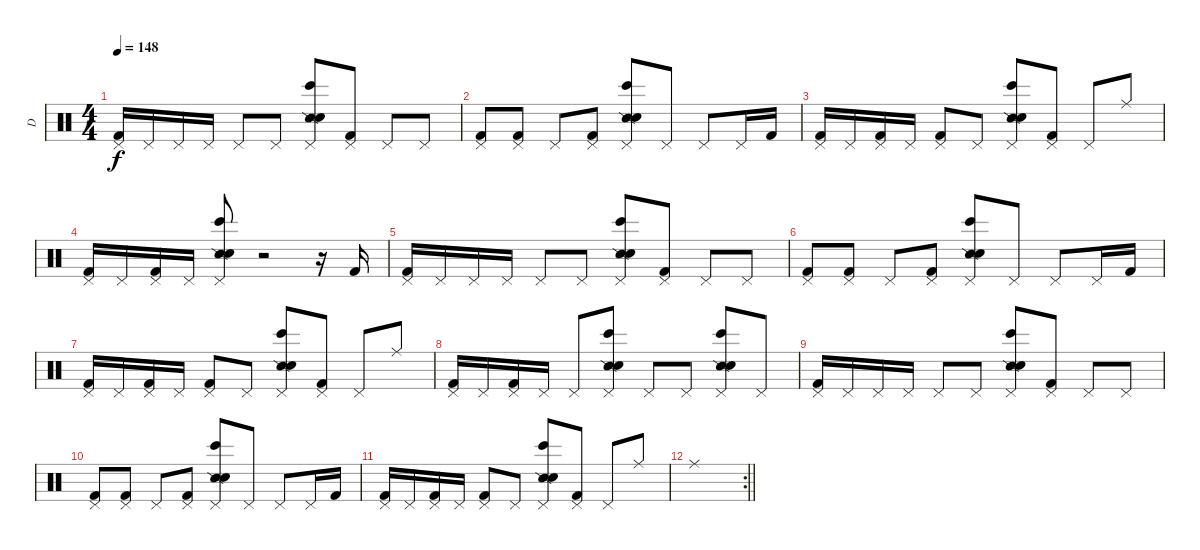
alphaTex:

\track ("D" "D") {instrument percussion}
\staff {score}
\articulation defaults
\ts (4 4)
\tempo 148
\clef neutral
\ks c
("Kick (hit) 2" "Pedal Hi-Hat (hit)").16{dy f} "Pedal Hi-Hat (hit)".16 "Pedal Hi-Hat (hit)".16 "Pedal Hi-Hat (hit)".16 "Pedal Hi-Hat (hit)".8 "Pedal Hi-Hat (hit)".8 ("Bongo High (hit)" "Snare (side stick) 2" "Electric Snare (hit)" "Pedal Hi-Hat (hit)").8 ("Kick (hit) 2" "Pedal Hi-Hat (hit)").8 "Pedal Hi-Hat (hit)".8 "Pedal Hi-Hat (hit)".8 |
("Kick (hit) 2" "Pedal Hi-Hat (hit)").8 ("Kick (hit) 2" "Pedal Hi-Hat (hit)").8 "Pedal Hi-Hat (hit)".8 ("Kick (hit) 2" "Pedal Hi-Hat (hit)").8 ("Bongo High (hit)" "Snare (side stick) 2" "Electric Snare (hit)" "Pedal Hi-Hat (hit)").8 "Pedal Hi-Hat (hit)".8 "Pedal Hi-Hat (hit)".8 "Pedal Hi-Hat (hit)".16 "Kick (hit) 2".16 |
("Kick (hit) 2" "Pedal Hi-Hat (hit)").16 "Pedal Hi-Hat (hit)".16 ("Kick (hit) 2" "Pedal Hi-Hat (hit)").16 "Pedal Hi-Hat (hit)".16 ("Kick (hit) 2" "Pedal Hi-Hat (hit)").8 "Pedal Hi-Hat (hit)".8 ("Bongo High (hit)" "Snare (side stick) 2" "Electric Snare (hit)" "Pedal Hi-Hat (hit)").8 ("Kick (hit) 2" "Pedal Hi-Hat (hit)").8 "Pedal Hi-Hat (hit)".8 "Ride (middle)".8 |
("Kick (hit) 2" "Pedal Hi-Hat (hit)").16 "Pedal Hi-Hat (hit)".16 ("Kick (hit) 2" "Pedal Hi-Hat (hit)").16 "Pedal Hi-Hat (hit)".16 ("Bongo High (hit)" "Snare (side stick) 2" "Electric Snare (hit)" "Pedal Hi-Hat (hit)").8 r.2 r.16 "Kick (hit) 2".16 |
("Kick (hit) 2" "Pedal Hi-Hat (hit)").16 "Pedal Hi-Hat (hit)".16 "Pedal Hi-Hat (hit)".16 "Pedal Hi-Hat (hit)".16 "Pedal Hi-Hat (hit)".8 "Pedal Hi-Hat (hit)".8 ("Bongo High (hit)" "Snare (side stick) 2" "Electric Snare (hit)" "Pedal Hi-Hat (hit)").8 ("Kick (hit) 2" "Pedal Hi-Hat (hit)").8 "Pedal Hi-Hat (hit)".8 "Pedal Hi-Hat (hit)".8 |
("Kick (hit) 2" "Pedal Hi-Hat (hit)").8 ("Kick (hit) 2" "Pedal Hi-Hat (hit)").8 "Pedal Hi-Hat (hit)".8 ("Kick (hit) 2" "Pedal Hi-Hat (hit)").8 ("Bongo High (hit)" "Snare (side stick) 2" "Electric Snare (hit)" "Pedal Hi-Hat (hit)").8 "Pedal Hi-Hat (hit)".8 "Pedal Hi-Hat (hit)".8 "Pedal Hi-Hat (hit)".16 "Kick (hit) 2".16 |
("Kick (hit) 2" "Pedal Hi-Hat (hit)").16 "Pedal Hi-Hat (hit)".16 ("Kick (hit) 2" "Pedal Hi-Hat (hit)").16 "Pedal Hi-Hat (hit)".16 ("Kick (hit) 2" "Pedal Hi-Hat (hit)").8 "Pedal Hi-Hat (hit)".8 ("Bongo High (hit)" "Snare (side stick) 2" "Electric Snare (hit)" "Pedal Hi-Hat (hit)").8 ("Kick (hit) 2" "Pedal Hi-Hat (hit)").8 "Pedal Hi-Hat (hit)".8 "Ride (middle)".8 |
("Kick (hit) 2" "Pedal Hi-Hat (hit)").16 "Pedal Hi-Hat (hit)".16 ("Kick (hit) 2" "Pedal Hi-Hat (hit)").16 "Pedal Hi-Hat (hit)".16 "Pedal Hi-Hat (hit)".8 ("Bongo High (hit)" "Snare (side stick) 2" "Electric Snare (hit)" "Pedal Hi-Hat (hit)").8 "Pedal Hi-Hat (hit)".8 "Pedal Hi-Hat (hit)".8 ("Bongo High (hit)" "Snare (side stick) 2" "Electric Snare (hit)" "Pedal Hi-Hat (hit)").8 "Pedal Hi-Hat (hit)".8 |
("Kick (hit) 2" "Pedal Hi-Hat (hit)").16 "Pedal Hi-Hat (hit)".16 "Pedal Hi-Hat (hit)".16 "Pedal Hi-Hat (hit)".16 "Pedal Hi-Hat (hit)".8 "Pedal Hi-Hat (hit)".8 ("Bongo High (hit)" "Snare (side stick) 2" "Electric Snare (hit)" "Pedal Hi-Hat (hit)").8 ("Kick (hit) 2" "Pedal Hi-Hat (hit)").8 "Pedal Hi-Hat (hit)".8 "Pedal Hi-Hat (hit)".8 |
("Kick (hit) 2" "Pedal Hi-Hat (hit)").8 ("Kick (hit) 2" "Pedal Hi-Hat (hit)").8 "Pedal Hi-Hat (hit)".8 ("Kick (hit) 2" "Pedal Hi-Hat (hit)").8 ("Bongo High (hit)" "Snare (side stick) 2" "Electric Snare (hit)" "Pedal Hi-Hat (hit)").8 "Pedal Hi-Hat (hit)".8 "Pedal Hi-Hat (hit)".8 "Pedal Hi-Hat (hit)".16 "Kick (hit) 2".16 |
("Kick (hit) 2" "Pedal Hi-Hat (hit)").16 "Pedal Hi-Hat (hit)".16 ("Kick (hit) 2" "Pedal Hi-Hat (hit)").16 "Pedal Hi-Hat (hit)".16 ("Kick (hit) 2" "Pedal Hi-Hat (hit)").8 "Pedal Hi-Hat (hit)".8 ("Bongo High (hit)" "Snare (side stick) 2" "Electric Snare (hit)" "Pedal Hi-Hat (hit)").8 ("Kick (hit) 2" "Pedal Hi-Hat (hit)").8 "Pedal Hi-Hat (hit)".8 "Ride (middle)".8 |
\rc 2
\barLineRight lightlight "Ride (middle)".1
